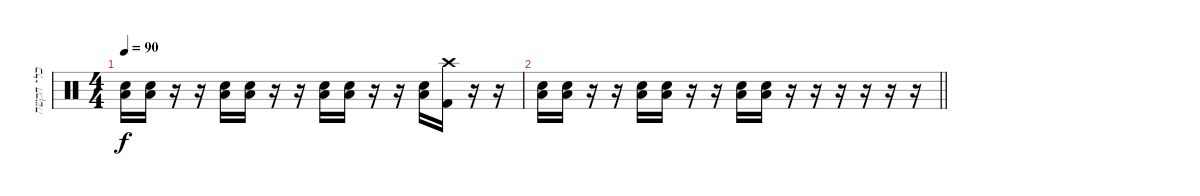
\track ("כלי הקשה" "כלי הקשה") {instrument percussion}
\staff {score}
\articulation defaults
\ts (4 4)
\tempo 90
\clef neutral
\ks c
("Low Floor Tom (hit)" "Electric Snare (hit)").16{dy f} ("Low Floor Tom (hit)" "Electric Snare (hit)").16 r.16 r.16 ("Low Floor Tom (hit)" "Electric Snare (hit)").16 ("Low Floor Tom (hit)" "Electric Snare (hit)").16 r.16 r.16 ("Low Floor Tom (hit)" "Electric Snare (hit)").16 ("Low Floor Tom (hit)" "Electric Snare (hit)").16 r.16 r.16 ("Low Floor Tom (hit)" "Electric Snare (hit)").16 ("Crash high (hit)" "Kick (hit) 2").16 r.16 r.16 |
\barLineRight lightlight
("Low Floor Tom (hit)" "Electric Snare (hit)").16 ("Low Floor Tom (hit)" "Electric Snare (hit)").16 r.16 r.16 ("Low Floor Tom (hit)" "Electric Snare (hit)").16 ("Low Floor Tom (hit)" "Electric Snare (hit)").16 r.16 r.16 ("Low Floor Tom (hit)" "Electric Snare (hit)").16 ("Low Floor Tom (hit)" "Electric Snare (hit)").16 r.16 r.16 r.16 r.16 r.16 r.16
